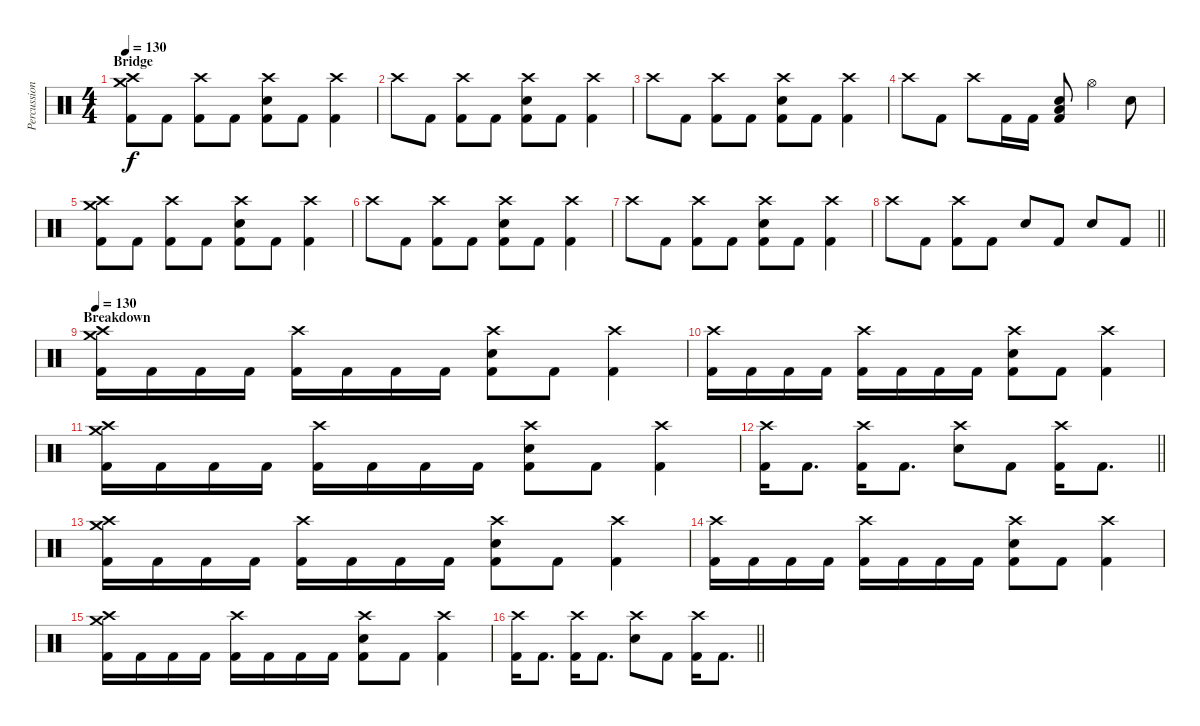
\track ("Percussion" "Percussion") {instrument percussion}
\staff {score}
\articulation defaults
\ts (4 4)
\section ("" "Bridge")
\tempo 130
\clef neutral
\ks c
("Crash high (hit)" "Crash medium (hit)" "Kick (hit) 2").8{dy f} "Kick (hit) 2".8 ("Crash high (hit)" "Kick (hit) 2").8 "Kick (hit) 2".8 ("Crash high (hit)" "Electric Snare (hit)" "Kick (hit) 2").8 "Kick (hit) 2".8 ("Crash high (hit)" "Kick (hit) 2").4 |
"Crash high (hit)".8 "Kick (hit) 2".8 ("Crash high (hit)" "Kick (hit) 2").8 "Kick (hit) 2".8 ("Crash high (hit)" "Electric Snare (hit)" "Kick (hit) 2").8 "Kick (hit) 2".8 ("Crash high (hit)" "Kick (hit) 2").4 |
"Crash high (hit)".8 "Kick (hit) 2".8 ("Crash high (hit)" "Kick (hit) 2").8 "Kick (hit) 2".8 ("Crash high (hit)" "Electric Snare (hit)" "Kick (hit) 2").8 "Kick (hit) 2".8 ("Crash high (hit)" "Kick (hit) 2").4 |
"Crash high (hit)".8 "Kick (hit) 2".8 "Crash high (hit)".8 "Kick (hit) 2".16 "Kick (hit) 2".16 ("Low Floor Tom (hit)" "Electric Snare (hit)" "Kick (hit) 2").8 "Hi-Hat (open)".4 "Electric Snare (hit)".8 |
("Crash high (hit)" "Crash medium (hit)" "Kick (hit) 2").8 "Kick (hit) 2".8 ("Crash high (hit)" "Kick (hit) 2").8 "Kick (hit) 2".8 ("Crash high (hit)" "Electric Snare (hit)" "Kick (hit) 2").8 "Kick (hit) 2".8 ("Crash high (hit)" "Kick (hit) 2").4 |
"Crash high (hit)".8 "Kick (hit) 2".8 ("Crash high (hit)" "Kick (hit) 2").8 "Kick (hit) 2".8 ("Crash high (hit)" "Electric Snare (hit)" "Kick (hit) 2").8 "Kick (hit) 2".8 ("Crash high (hit)" "Kick (hit) 2").4 |
"Crash high (hit)".8 "Kick (hit) 2".8 ("Crash high (hit)" "Kick (hit) 2").8 "Kick (hit) 2".8 ("Crash high (hit)" "Electric Snare (hit)" "Kick (hit) 2").8 "Kick (hit) 2".8 ("Crash high (hit)" "Kick (hit) 2").4 |
\barLineRight lightlight "Crash high (hit)".8 "Kick (hit) 2".8
("Crash high (hit)" "Kick (hit) 2").8 "Kick (hit) 2".8 "Electric Snare (hit)".8 "Kick (hit) 2".8 "Electric Snare (hit)".8 "Kick (hit) 2".8 |
\section ("" "Breakdown")
\tempo 130
("Crash high (hit)" "Crash medium (hit)" "Kick (hit) 2").16 "Kick (hit) 2".16 "Kick (hit) 2".16 "Kick (hit) 2".16 ("Crash high (hit)" "Kick (hit) 2").16 "Kick (hit) 2".16 "Kick (hit) 2".16 "Kick (hit) 2".16 ("Crash high (hit)" "Electric Snare (hit)" "Kick (hit) 2").8 "Kick (hit) 2".8 ("Crash high (hit)" "Kick (hit) 2").4 |
("Crash high (hit)" "Kick (hit) 2").16 "Kick (hit) 2".16 "Kick (hit) 2".16 "Kick (hit) 2".16 ("Crash high (hit)" "Kick (hit) 2").16 "Kick (hit) 2".16 "Kick (hit) 2".16 "Kick (hit) 2".16 ("Crash high (hit)" "Electric Snare (hit)" "Kick (hit) 2").8 "Kick (hit) 2".8 ("Crash high (hit)" "Kick (hit) 2").4 |
("Crash high (hit)" "Crash medium (hit)" "Kick (hit) 2").16 "Kick (hit) 2".16 "Kick (hit) 2".16 "Kick (hit) 2".16 ("Crash high (hit)" "Kick (hit) 2").16 "Kick (hit) 2".16 "Kick (hit) 2".16 "Kick (hit) 2".16 ("Crash high (hit)" "Electric Snare (hit)" "Kick (hit) 2").8 "Kick (hit) 2".8 ("Crash high (hit)" "Kick (hit) 2").4 |
\barLineRight lightlight
("Crash high (hit)" "Kick (hit) 2").16 "Kick (hit) 2".8{d} ("Crash high (hit)" "Kick (hit) 2").16 "Kick (hit) 2".8{d} ("Crash high (hit)" "Electric Snare (hit)").8 "Kick (hit) 2".8 ("Crash high (hit)" "Kick (hit) 2").16 "Kick (hit) 2".8{d} |
("Crash high (hit)" "Crash medium (hit)" "Kick (hit) 2").16 "Kick (hit) 2".16 "Kick (hit) 2".16 "Kick (hit) 2".16 ("Crash high (hit)" "Kick (hit) 2").16 "Kick (hit) 2".16 "Kick (hit) 2".16 "Kick (hit) 2".16 ("Crash high (hit)" "Electric Snare (hit)" "Kick (hit) 2").8 "Kick (hit) 2".8 ("Crash high (hit)" "Kick (hit) 2").4 |
("Crash high (hit)" "Kick (hit) 2").16 "Kick (hit) 2".16 "Kick (hit) 2".16 "Kick (hit) 2".16 ("Crash high (hit)" "Kick (hit) 2").16 "Kick (hit) 2".16 "Kick (hit) 2".16 "Kick (hit) 2".16 ("Crash high (hit)" "Electric Snare (hit)" "Kick (hit) 2").8 "Kick (hit) 2".8 ("Crash high (hit)" "Kick (hit) 2").4 |
("Crash high (hit)" "Crash medium (hit)" "Kick (hit) 2").16 "Kick (hit) 2".16 "Kick (hit) 2".16 "Kick (hit) 2".16 ("Crash high (hit)" "Kick (hit) 2").16 "Kick (hit) 2".16 "Kick (hit) 2".16 "Kick (hit) 2".16 ("Crash high (hit)" "Electric Snare (hit)" "Kick (hit) 2").8 "Kick (hit) 2".8 ("Crash high (hit)" "Kick (hit) 2").4 |
\barLineRight lightlight
("Crash high (hit)" "Kick (hit) 2").16 "Kick (hit) 2".8{d} ("Crash high (hit)" "Kick (hit) 2").16 "Kick (hit) 2".8{d} ("Crash high (hit)" "Electric Snare (hit)").8 "Kick (hit) 2".8 ("Crash high (hit)" "Kick (hit) 2").16 "Kick (hit) 2".8{d}
